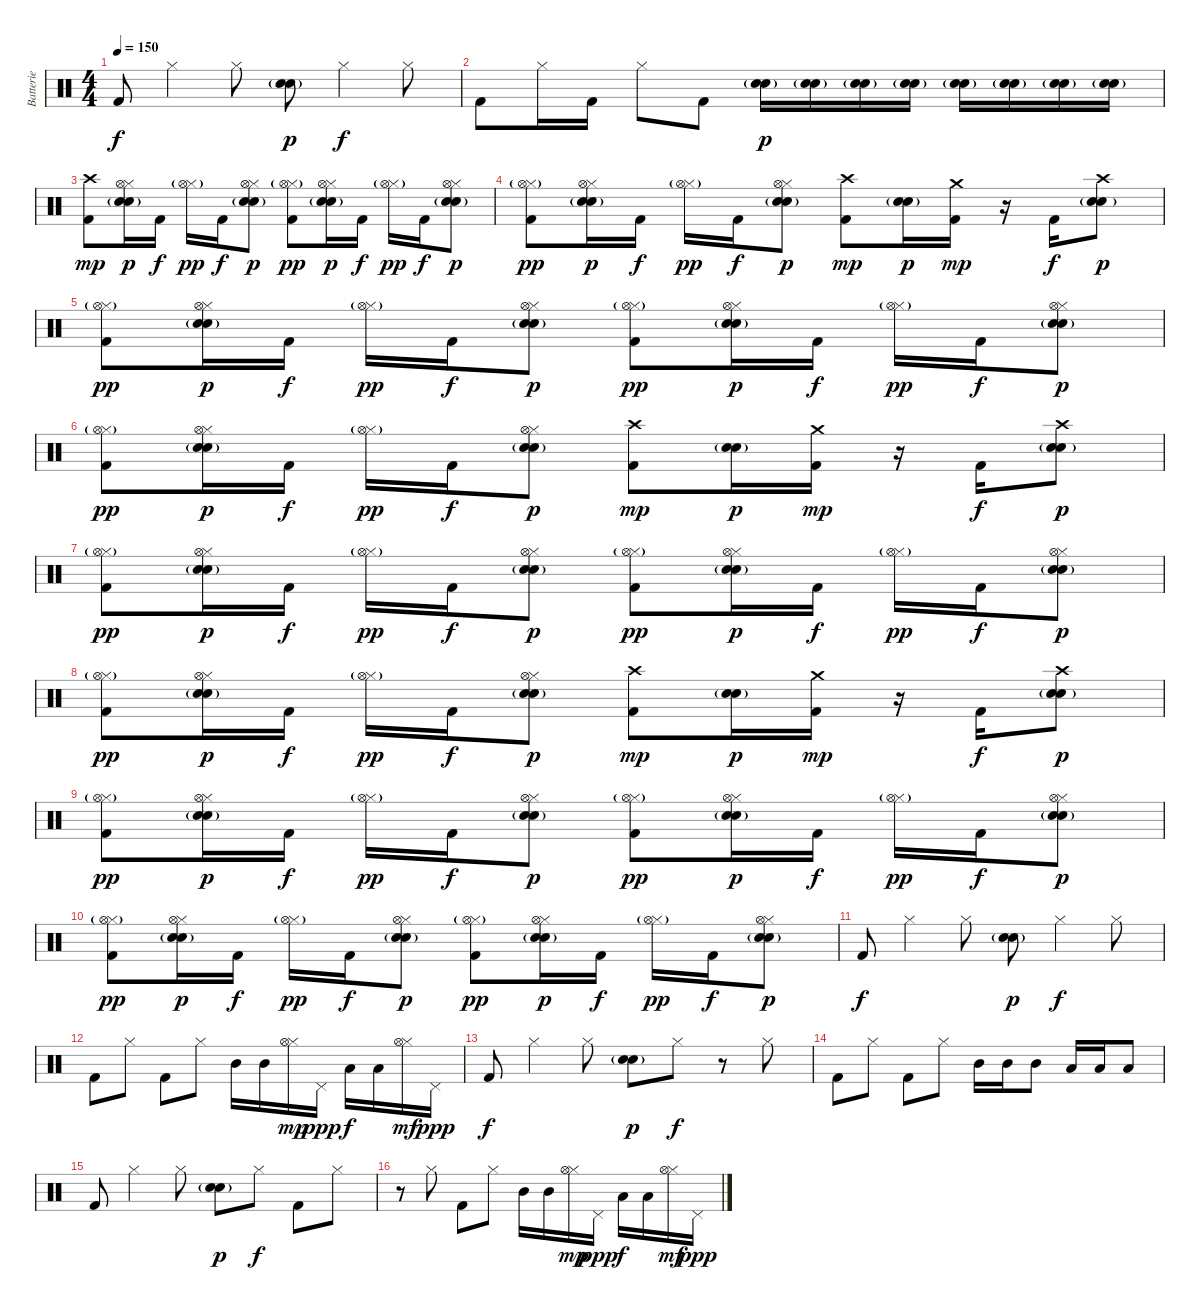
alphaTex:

\track ("Batterie" "Batterie") {instrument percussion}
\staff {score}
\articulation defaults
\ts (4 4)
\tempo 150
\clef neutral
\ks c "Kick (hit) 2".8{dy f} "Hi-Hat (closed)".4 "Hi-Hat (closed)".8
("Electric Snare (hit)" "Snare (hit) 2"{g}).8{dy p} "Hi-Hat (closed)".4{dy f} "Hi-Hat (closed)".8 |
"Kick (hit) 2".8 "Hi-Hat (closed)".16 "Kick (hit) 2".16 "Hi-Hat (closed)".8 "Kick (hit) 2".8 ("Electric Snare (hit)" "Snare (hit) 2"{g}).16{dy p} ("Electric Snare (hit)" "Snare (hit) 2"{g}).16 ("Electric Snare (hit)" "Snare (hit) 2"{g}).16 ("Electric Snare (hit)" "Snare (hit) 2"{g}).16 ("Electric Snare (hit)" "Snare (hit) 2"{g}).16 ("Electric Snare (hit)" "Snare (hit) 2"{g}).16 ("Electric Snare (hit)" "Snare (hit) 2"{g}).16 ("Electric Snare (hit)" "Snare (hit) 2"{g}).16 |
("Crash high (hit)" "Kick (hit) 2").8{dy mp} ("Hi-Hat (closed)" "Hi-Hat (open)" "Electric Snare (hit)" "Snare (hit) 2"{g}).16{dy p} "Kick (hit) 2".16{dy f} ("Hi-Hat (closed)"{g} "Hi-Hat (open)"{g}).16{dy pp} "Kick (hit) 2".16{dy f} ("Hi-Hat (closed)" "Hi-Hat (open)" "Electric Snare (hit)" "Snare (hit) 2"{g}).8{dy p} ("Hi-Hat (closed)"{g} "Hi-Hat (open)"{g} "Kick (hit) 2").8{dy pp} ("Hi-Hat (closed)" "Hi-Hat (open)" "Electric Snare (hit)" "Snare (hit) 2"{g}).16{dy p} "Kick (hit) 2".16{dy f} ("Hi-Hat (closed)"{g} "Hi-Hat (open)"{g}).16{dy pp} "Kick (hit) 2".16{dy f} ("Hi-Hat (closed)" "Hi-Hat (open)" "Electric Snare (hit)" "Snare (hit) 2"{g}).8{dy p} |
("Hi-Hat (closed)"{g} "Hi-Hat (open)"{g} "Kick (hit) 2").8{dy pp} ("Hi-Hat (closed)" "Hi-Hat (open)" "Electric Snare (hit)" "Snare (hit) 2"{g}).16{dy p} "Kick (hit) 2".16{dy f} ("Hi-Hat (closed)"{g} "Hi-Hat (open)"{g}).16{dy pp} "Kick (hit) 2".16{dy f} ("Hi-Hat (closed)" "Hi-Hat (open)" "Electric Snare (hit)" "Snare (hit) 2"{g}).8{dy p} ("Crash high (hit)" "Kick (hit) 2").8{dy mp} ("Electric Snare (hit)" "Snare (hit) 2"{g}).16{dy p} ("Crash medium (hit)" "Kick (hit) 2").16{dy mp} r.16 "Kick (hit) 2".16{dy f} ("Crash high (hit)" "Electric Snare (hit)" "Snare (hit) 2"{g}).8{dy p} |
("Hi-Hat (closed)"{g} "Hi-Hat (open)"{g} "Kick (hit) 2").8{dy pp} ("Hi-Hat (closed)" "Hi-Hat (open)" "Electric Snare (hit)" "Snare (hit) 2"{g}).16{dy p} "Kick (hit) 2".16{dy f} ("Hi-Hat (closed)"{g} "Hi-Hat (open)"{g}).16{dy pp} "Kick (hit) 2".16{dy f} ("Hi-Hat (closed)" "Hi-Hat (open)" "Electric Snare (hit)" "Snare (hit) 2"{g}).8{dy p} ("Hi-Hat (closed)"{g} "Hi-Hat (open)"{g} "Kick (hit) 2").8{dy pp} ("Hi-Hat (closed)" "Hi-Hat (open)" "Electric Snare (hit)" "Snare (hit) 2"{g}).16{dy p} "Kick (hit) 2".16{dy f} ("Hi-Hat (closed)"{g} "Hi-Hat (open)"{g}).16{dy pp} "Kick (hit) 2".16{dy f} ("Hi-Hat (closed)" "Hi-Hat (open)" "Electric Snare (hit)" "Snare (hit) 2"{g}).8{dy p} |
("Hi-Hat (closed)"{g} "Hi-Hat (open)"{g} "Kick (hit) 2").8{dy pp} ("Hi-Hat (closed)" "Hi-Hat (open)" "Electric Snare (hit)" "Snare (hit) 2"{g}).16{dy p} "Kick (hit) 2".16{dy f} ("Hi-Hat (closed)"{g} "Hi-Hat (open)"{g}).16{dy pp} "Kick (hit) 2".16{dy f} ("Hi-Hat (closed)" "Hi-Hat (open)" "Electric Snare (hit)" "Snare (hit) 2"{g}).8{dy p} ("Crash high (hit)" "Kick (hit) 2").8{dy mp} ("Electric Snare (hit)" "Snare (hit) 2"{g}).16{dy p} ("Crash medium (hit)" "Kick (hit) 2").16{dy mp} r.16 "Kick (hit) 2".16{dy f} ("Crash high (hit)" "Electric Snare (hit)" "Snare (hit) 2"{g}).8{dy p} |
("Hi-Hat (closed)"{g} "Hi-Hat (open)"{g} "Kick (hit) 2").8{dy pp} ("Hi-Hat (closed)" "Hi-Hat (open)" "Electric Snare (hit)" "Snare (hit) 2"{g}).16{dy p} "Kick (hit) 2".16{dy f} ("Hi-Hat (closed)"{g} "Hi-Hat (open)"{g}).16{dy pp} "Kick (hit) 2".16{dy f} ("Hi-Hat (closed)" "Hi-Hat (open)" "Electric Snare (hit)" "Snare (hit) 2"{g}).8{dy p} ("Hi-Hat (closed)"{g} "Hi-Hat (open)"{g} "Kick (hit) 2").8{dy pp} ("Hi-Hat (closed)" "Hi-Hat (open)" "Electric Snare (hit)" "Snare (hit) 2"{g}).16{dy p} "Kick (hit) 2".16{dy f} ("Hi-Hat (closed)"{g} "Hi-Hat (open)"{g}).16{dy pp} "Kick (hit) 2".16{dy f} ("Hi-Hat (closed)" "Hi-Hat (open)" "Electric Snare (hit)" "Snare (hit) 2"{g}).8{dy p} |
("Hi-Hat (closed)"{g} "Hi-Hat (open)"{g} "Kick (hit) 2").8{dy pp} ("Hi-Hat (closed)" "Hi-Hat (open)" "Electric Snare (hit)" "Snare (hit) 2"{g}).16{dy p} "Kick (hit) 2".16{dy f} ("Hi-Hat (closed)"{g} "Hi-Hat (open)"{g}).16{dy pp} "Kick (hit) 2".16{dy f} ("Hi-Hat (closed)" "Hi-Hat (open)" "Electric Snare (hit)" "Snare (hit) 2"{g}).8{dy p} ("Crash high (hit)" "Kick (hit) 2").8{dy mp} ("Electric Snare (hit)" "Snare (hit) 2"{g}).16{dy p} ("Crash medium (hit)" "Kick (hit) 2").16{dy mp} r.16 "Kick (hit) 2".16{dy f} ("Crash high (hit)" "Electric Snare (hit)" "Snare (hit) 2"{g}).8{dy p} |
("Hi-Hat (closed)"{g} "Hi-Hat (open)"{g} "Kick (hit) 2").8{dy pp} ("Hi-Hat (closed)" "Hi-Hat (open)" "Electric Snare (hit)" "Snare (hit) 2"{g}).16{dy p} "Kick (hit) 2".16{dy f} ("Hi-Hat (closed)"{g} "Hi-Hat (open)"{g}).16{dy pp} "Kick (hit) 2".16{dy f} ("Hi-Hat (closed)" "Hi-Hat (open)" "Electric Snare (hit)" "Snare (hit) 2"{g}).8{dy p} ("Hi-Hat (closed)"{g} "Hi-Hat (open)"{g} "Kick (hit) 2").8{dy pp} ("Hi-Hat (closed)" "Hi-Hat (open)" "Electric Snare (hit)" "Snare (hit) 2"{g}).16{dy p} "Kick (hit) 2".16{dy f} ("Hi-Hat (closed)"{g} "Hi-Hat (open)"{g}).16{dy pp} "Kick (hit) 2".16{dy f} ("Hi-Hat (closed)" "Hi-Hat (open)" "Electric Snare (hit)" "Snare (hit) 2"{g}).8{dy p} |
("Hi-Hat (closed)"{g} "Hi-Hat (open)"{g} "Kick (hit) 2").8{dy pp} ("Hi-Hat (closed)" "Hi-Hat (open)" "Electric Snare (hit)" "Snare (hit) 2"{g}).16{dy p} "Kick (hit) 2".16{dy f} ("Hi-Hat (closed)"{g} "Hi-Hat (open)"{g}).16{dy pp} "Kick (hit) 2".16{dy f} ("Hi-Hat (closed)" "Hi-Hat (open)" "Electric Snare (hit)" "Snare (hit) 2"{g}).8{dy p} ("Hi-Hat (closed)"{g} "Hi-Hat (open)"{g} "Kick (hit) 2").8{dy pp} ("Hi-Hat (closed)" "Hi-Hat (open)" "Electric Snare (hit)" "Snare (hit) 2"{g}).16{dy p} "Kick (hit) 2".16{dy f} ("Hi-Hat (closed)"{g} "Hi-Hat (open)"{g}).16{dy pp} "Kick (hit) 2".16{dy f} ("Hi-Hat (closed)" "Hi-Hat (open)" "Electric Snare (hit)" "Snare (hit) 2"{g}).8{dy p} |
"Kick (hit) 2".8{dy f} "Hi-Hat (closed)".4 "Hi-Hat (closed)".8 ("Electric Snare (hit)" "Snare (hit) 2"{g}).8{dy p} "Hi-Hat (closed)".4{dy f} "Hi-Hat (closed)".8 |
"Kick (hit) 2".8 "Hi-Hat (closed)".8 "Kick (hit) 2".8 "Hi-Hat (closed)".8 "Mid Tom (hit)".16 "Mid Tom (hit)".16 ("Hi-Hat (closed)" "Hi-Hat (open)").16{dy mp} "Pedal Hi-Hat (hit)".16{dy ppp} "Low Tom (hit)".16{dy f} "Low Tom (hit)".16 ("Hi-Hat (closed)" "Hi-Hat (open)").16{dy mf} "Pedal Hi-Hat (hit)".16{dy ppp} |
"Kick (hit) 2".8{dy f} "Hi-Hat (closed)".4 "Hi-Hat (closed)".8 ("Electric Snare (hit)" "Snare (hit) 2"{g}).8{dy p} "Hi-Hat (closed)".8{dy f} r.8 "Hi-Hat (closed)".8 |
"Kick (hit) 2".8 "Hi-Hat (closed)".8 "Kick (hit) 2".8 "Hi-Hat (closed)".8 "Mid Tom (hit)".16 "Mid Tom (hit)".16 "Mid Tom (hit)".8 "Low Tom (hit)".16 "Low Tom (hit)".16 "Low Tom (hit)".8 |
"Kick (hit) 2".8 "Hi-Hat (closed)".4 "Hi-Hat (closed)".8 ("Electric Snare (hit)" "Snare (hit) 2"{g}).8{dy p} "Hi-Hat (closed)".8{dy f} "Kick (hit) 2".8 "Hi-Hat (closed)".8 |
r.8 "Hi-Hat (closed)".8 "Kick (hit) 2".8 "Hi-Hat (closed)".8 "Mid Tom (hit)".16 "Mid Tom (hit)".16 ("Hi-Hat (closed)" "Hi-Hat (open)").16{dy mp} "Pedal Hi-Hat (hit)".16{dy ppp} "Low Tom (hit)".16{dy f} "Low Tom (hit)".16 ("Hi-Hat (closed)" "Hi-Hat (open)").16{dy mf} "Pedal Hi-Hat (hit)".16{dy ppp}
